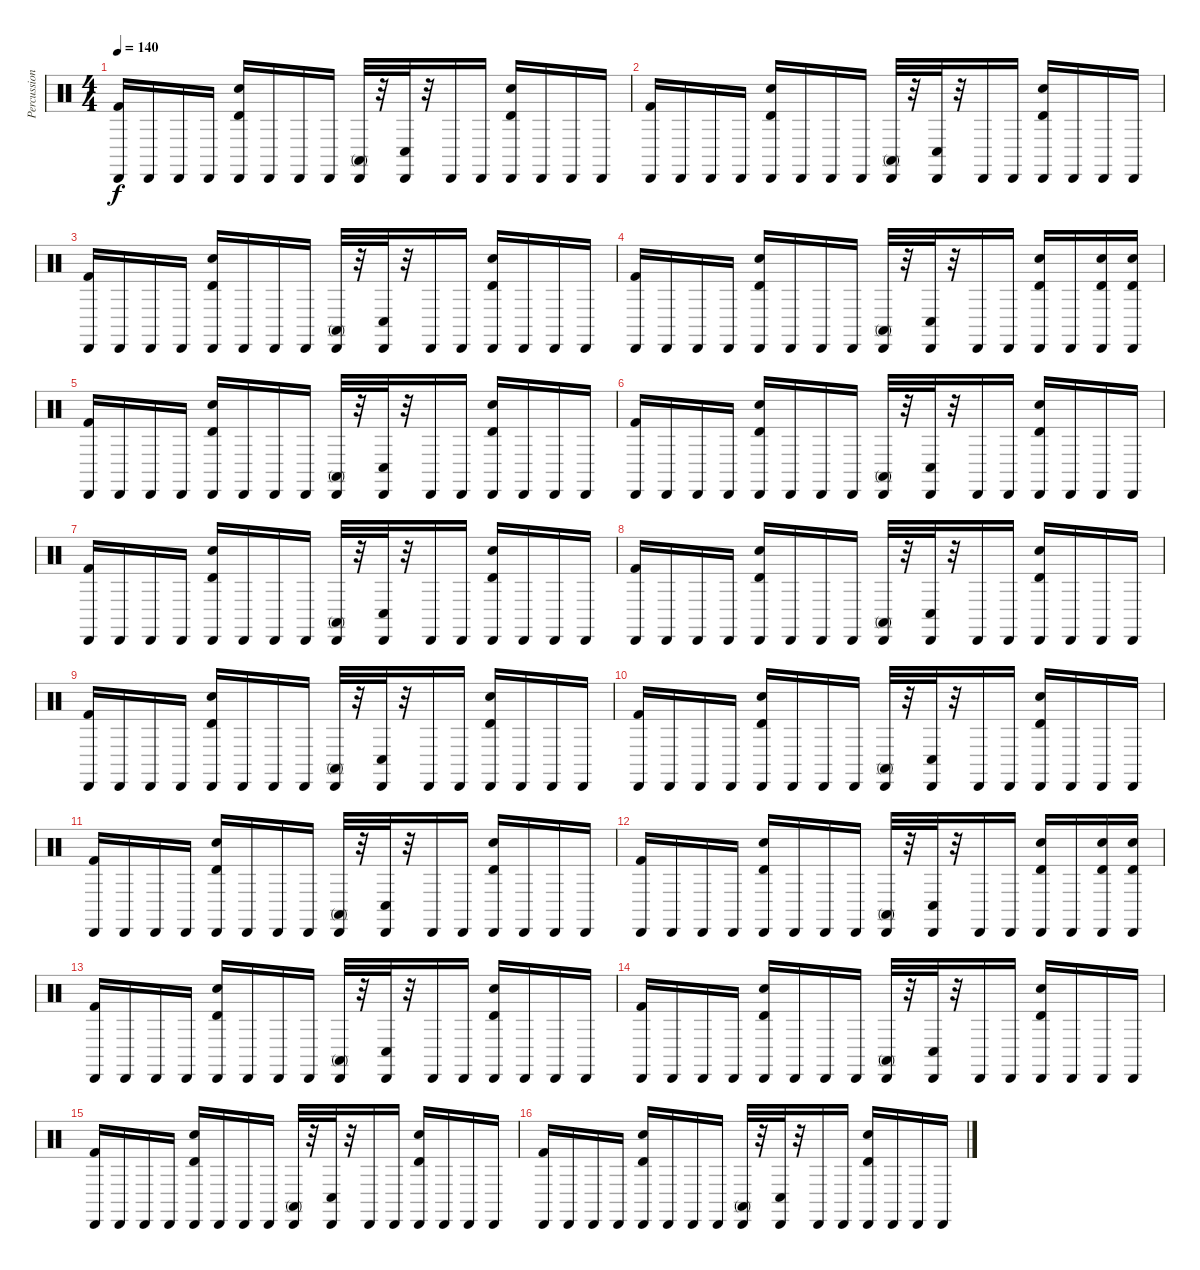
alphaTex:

\track ("Percussions" "Percussion") {instrument percussion}
\staff {score}
\articulation defaults
\ts (4 4)
\tempo 140
\clef neutral
\ks c
("Kick (hit) 2" "Cabasa (hit)").16{dy f} "Cabasa (hit)".16 "Cabasa (hit)".16 "Cabasa (hit)".16 ("Timbale high (hit)" "Electric Snare (hit)" "Cabasa (hit)").16 "Cabasa (hit)".16 "Cabasa (hit)".16 "Cabasa (hit)".16 ("Conga high (mute)" "Cabasa (hit)").32 r.32 ("Conga low (hit)" "Cabasa (hit)").32 r.32 "Cabasa (hit)".16 "Cabasa (hit)".16 ("Electric Snare (hit)" "Timbale high (hit)" "Cabasa (hit)").16 "Cabasa (hit)".16 "Cabasa (hit)".16 "Cabasa (hit)".16 |
("Kick (hit) 2" "Cabasa (hit)").16 "Cabasa (hit)".16 "Cabasa (hit)".16 "Cabasa (hit)".16 ("Timbale high (hit)" "Electric Snare (hit)" "Cabasa (hit)").16 "Cabasa (hit)".16 "Cabasa (hit)".16 "Cabasa (hit)".16 ("Conga high (mute)" "Cabasa (hit)").32 r.32 ("Conga low (hit)" "Cabasa (hit)").32 r.32 "Cabasa (hit)".16 "Cabasa (hit)".16 ("Electric Snare (hit)" "Timbale high (hit)" "Cabasa (hit)").16 "Cabasa (hit)".16 "Cabasa (hit)".16 "Cabasa (hit)".16 |
("Kick (hit) 2" "Cabasa (hit)").16 "Cabasa (hit)".16 "Cabasa (hit)".16 "Cabasa (hit)".16 ("Timbale high (hit)" "Electric Snare (hit)" "Cabasa (hit)").16 "Cabasa (hit)".16 "Cabasa (hit)".16 "Cabasa (hit)".16 ("Conga high (mute)" "Cabasa (hit)").32 r.32 ("Conga low (hit)" "Cabasa (hit)").32 r.32 "Cabasa (hit)".16 "Cabasa (hit)".16 ("Electric Snare (hit)" "Timbale high (hit)" "Cabasa (hit)").16 "Cabasa (hit)".16 "Cabasa (hit)".16 "Cabasa (hit)".16 |
("Kick (hit) 2" "Cabasa (hit)").16 "Cabasa (hit)".16 "Cabasa (hit)".16 "Cabasa (hit)".16 ("Timbale high (hit)" "Electric Snare (hit)" "Cabasa (hit)").16 "Cabasa (hit)".16 "Cabasa (hit)".16 "Cabasa (hit)".16 ("Conga high (mute)" "Cabasa (hit)").32 r.32 ("Conga low (hit)" "Cabasa (hit)").32 r.32 "Cabasa (hit)".16 "Cabasa (hit)".16 ("Electric Snare (hit)" "Timbale high (hit)" "Cabasa (hit)").16 "Cabasa (hit)".16 ("Electric Snare (hit)" "Timbale high (hit)" "Cabasa (hit)").16 ("Electric Snare (hit)" "Timbale high (hit)" "Cabasa (hit)").16 |
("Kick (hit) 2" "Cabasa (hit)").16 "Cabasa (hit)".16 "Cabasa (hit)".16 "Cabasa (hit)".16 ("Timbale high (hit)" "Electric Snare (hit)" "Cabasa (hit)").16 "Cabasa (hit)".16 "Cabasa (hit)".16 "Cabasa (hit)".16 ("Conga high (mute)" "Cabasa (hit)").32 r.32 ("Conga low (hit)" "Cabasa (hit)").32 r.32 "Cabasa (hit)".16 "Cabasa (hit)".16 ("Electric Snare (hit)" "Timbale high (hit)" "Cabasa (hit)").16 "Cabasa (hit)".16 "Cabasa (hit)".16 "Cabasa (hit)".16 |
("Kick (hit) 2" "Cabasa (hit)").16 "Cabasa (hit)".16 "Cabasa (hit)".16 "Cabasa (hit)".16 ("Timbale high (hit)" "Electric Snare (hit)" "Cabasa (hit)").16 "Cabasa (hit)".16 "Cabasa (hit)".16 "Cabasa (hit)".16 ("Conga high (mute)" "Cabasa (hit)").32 r.32 ("Conga low (hit)" "Cabasa (hit)").32 r.32 "Cabasa (hit)".16 "Cabasa (hit)".16 ("Electric Snare (hit)" "Timbale high (hit)" "Cabasa (hit)").16 "Cabasa (hit)".16 "Cabasa (hit)".16 "Cabasa (hit)".16 |
("Kick (hit) 2" "Cabasa (hit)").16 "Cabasa (hit)".16 "Cabasa (hit)".16 "Cabasa (hit)".16 ("Timbale high (hit)" "Electric Snare (hit)" "Cabasa (hit)").16 "Cabasa (hit)".16 "Cabasa (hit)".16 "Cabasa (hit)".16 ("Conga high (mute)" "Cabasa (hit)").32 r.32 ("Conga low (hit)" "Cabasa (hit)").32 r.32 "Cabasa (hit)".16 "Cabasa (hit)".16 ("Electric Snare (hit)" "Timbale high (hit)" "Cabasa (hit)").16 "Cabasa (hit)".16 "Cabasa (hit)".16 "Cabasa (hit)".16 |
("Kick (hit) 2" "Cabasa (hit)").16 "Cabasa (hit)".16 "Cabasa (hit)".16 "Cabasa (hit)".16 ("Timbale high (hit)" "Electric Snare (hit)" "Cabasa (hit)").16 "Cabasa (hit)".16 "Cabasa (hit)".16 "Cabasa (hit)".16 ("Conga high (mute)" "Cabasa (hit)").32 r.32 ("Conga low (hit)" "Cabasa (hit)").32 r.32 "Cabasa (hit)".16 "Cabasa (hit)".16 ("Electric Snare (hit)" "Timbale high (hit)" "Cabasa (hit)").16 "Cabasa (hit)".16 "Cabasa (hit)".16 "Cabasa (hit)".16 |
("Kick (hit) 2" "Cabasa (hit)").16 "Cabasa (hit)".16 "Cabasa (hit)".16 "Cabasa (hit)".16 ("Timbale high (hit)" "Electric Snare (hit)" "Cabasa (hit)").16 "Cabasa (hit)".16 "Cabasa (hit)".16 "Cabasa (hit)".16 ("Conga high (mute)" "Cabasa (hit)").32 r.32 ("Conga low (hit)" "Cabasa (hit)").32 r.32 "Cabasa (hit)".16 "Cabasa (hit)".16 ("Electric Snare (hit)" "Timbale high (hit)" "Cabasa (hit)").16 "Cabasa (hit)".16 "Cabasa (hit)".16 "Cabasa (hit)".16 |
("Kick (hit) 2" "Cabasa (hit)").16 "Cabasa (hit)".16 "Cabasa (hit)".16 "Cabasa (hit)".16 ("Timbale high (hit)" "Electric Snare (hit)" "Cabasa (hit)").16 "Cabasa (hit)".16 "Cabasa (hit)".16 "Cabasa (hit)".16 ("Conga high (mute)" "Cabasa (hit)").32 r.32 ("Conga low (hit)" "Cabasa (hit)").32 r.32 "Cabasa (hit)".16 "Cabasa (hit)".16 ("Electric Snare (hit)" "Timbale high (hit)" "Cabasa (hit)").16 "Cabasa (hit)".16 "Cabasa (hit)".16 "Cabasa (hit)".16 |
("Kick (hit) 2" "Cabasa (hit)").16 "Cabasa (hit)".16 "Cabasa (hit)".16 "Cabasa (hit)".16 ("Timbale high (hit)" "Electric Snare (hit)" "Cabasa (hit)").16 "Cabasa (hit)".16 "Cabasa (hit)".16 "Cabasa (hit)".16 ("Conga high (mute)" "Cabasa (hit)").32 r.32 ("Conga low (hit)" "Cabasa (hit)").32 r.32 "Cabasa (hit)".16 "Cabasa (hit)".16 ("Electric Snare (hit)" "Timbale high (hit)" "Cabasa (hit)").16 "Cabasa (hit)".16 "Cabasa (hit)".16 "Cabasa (hit)".16 |
("Kick (hit) 2" "Cabasa (hit)").16 "Cabasa (hit)".16 "Cabasa (hit)".16 "Cabasa (hit)".16 ("Timbale high (hit)" "Electric Snare (hit)" "Cabasa (hit)").16 "Cabasa (hit)".16 "Cabasa (hit)".16 "Cabasa (hit)".16 ("Conga high (mute)" "Cabasa (hit)").32 r.32 ("Conga low (hit)" "Cabasa (hit)").32 r.32 "Cabasa (hit)".16 "Cabasa (hit)".16 ("Electric Snare (hit)" "Timbale high (hit)" "Cabasa (hit)").16 "Cabasa (hit)".16 ("Timbale high (hit)" "Electric Snare (hit)" "Cabasa (hit)").16 ("Timbale high (hit)" "Electric Snare (hit)" "Cabasa (hit)").16 |
("Kick (hit) 2" "Cabasa (hit)").16 "Cabasa (hit)".16 "Cabasa (hit)".16 "Cabasa (hit)".16 ("Timbale high (hit)" "Electric Snare (hit)" "Cabasa (hit)").16 "Cabasa (hit)".16 "Cabasa (hit)".16 "Cabasa (hit)".16 ("Conga high (mute)" "Cabasa (hit)").32 r.32 ("Conga low (hit)" "Cabasa (hit)").32 r.32 "Cabasa (hit)".16 "Cabasa (hit)".16 ("Electric Snare (hit)" "Timbale high (hit)" "Cabasa (hit)").16 "Cabasa (hit)".16 "Cabasa (hit)".16 "Cabasa (hit)".16 |
("Kick (hit) 2" "Cabasa (hit)").16 "Cabasa (hit)".16 "Cabasa (hit)".16 "Cabasa (hit)".16 ("Timbale high (hit)" "Electric Snare (hit)" "Cabasa (hit)").16 "Cabasa (hit)".16 "Cabasa (hit)".16 "Cabasa (hit)".16 ("Conga high (mute)" "Cabasa (hit)").32 r.32 ("Conga low (hit)" "Cabasa (hit)").32 r.32 "Cabasa (hit)".16 "Cabasa (hit)".16 ("Electric Snare (hit)" "Timbale high (hit)" "Cabasa (hit)").16 "Cabasa (hit)".16 "Cabasa (hit)".16 "Cabasa (hit)".16 |
("Kick (hit) 2" "Cabasa (hit)").16 "Cabasa (hit)".16 "Cabasa (hit)".16 "Cabasa (hit)".16 ("Timbale high (hit)" "Electric Snare (hit)" "Cabasa (hit)").16 "Cabasa (hit)".16 "Cabasa (hit)".16 "Cabasa (hit)".16 ("Conga high (mute)" "Cabasa (hit)").32 r.32 ("Conga low (hit)" "Cabasa (hit)").32 r.32 "Cabasa (hit)".16 "Cabasa (hit)".16 ("Electric Snare (hit)" "Timbale high (hit)" "Cabasa (hit)").16 "Cabasa (hit)".16 "Cabasa (hit)".16 "Cabasa (hit)".16 |
("Kick (hit) 2" "Cabasa (hit)").16 "Cabasa (hit)".16 "Cabasa (hit)".16 "Cabasa (hit)".16 ("Timbale high (hit)" "Electric Snare (hit)" "Cabasa (hit)").16 "Cabasa (hit)".16 "Cabasa (hit)".16 "Cabasa (hit)".16 ("Conga high (mute)" "Cabasa (hit)").32 r.32 ("Conga low (hit)" "Cabasa (hit)").32 r.32 "Cabasa (hit)".16 "Cabasa (hit)".16 ("Electric Snare (hit)" "Timbale high (hit)" "Cabasa (hit)").16 "Cabasa (hit)".16 "Cabasa (hit)".16 "Cabasa (hit)".16
